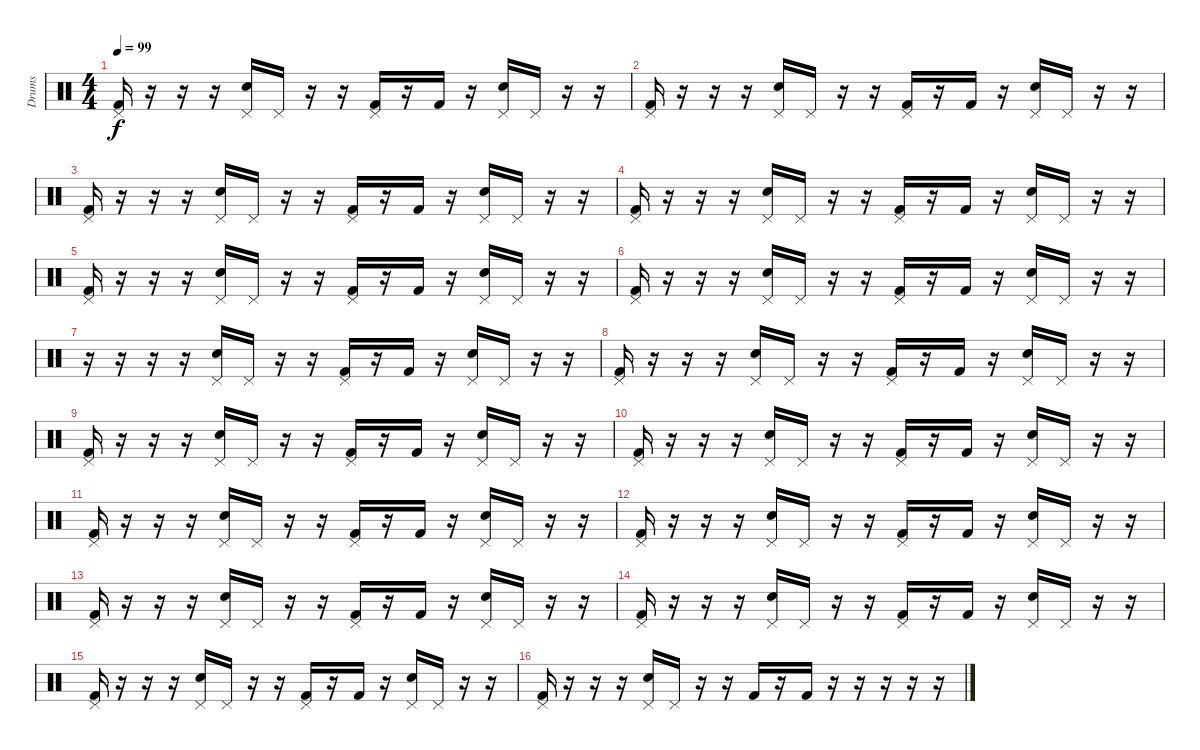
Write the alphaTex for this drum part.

\track ("Drums" "Drums") {instrument percussion}
\staff {score}
\articulation defaults
\ts (4 4)
\tempo 99
\clef neutral
\ks c
("Pedal Hi-Hat (hit)" "Kick (hit) 2").16{dy f} r.16 r.16 r.16 ("Pedal Hi-Hat (hit)" "Electric Snare (hit)").16 "Pedal Hi-Hat (hit)".16 r.16 r.16 ("Pedal Hi-Hat (hit)" "Kick (hit) 2").16 r.16 "Kick (hit) 2".16 r.16 ("Pedal Hi-Hat (hit)" "Electric Snare (hit)").16 "Pedal Hi-Hat (hit)".16 r.16 r.16 |
("Pedal Hi-Hat (hit)" "Kick (hit) 2").16 r.16 r.16 r.16 ("Pedal Hi-Hat (hit)" "Electric Snare (hit)").16 "Pedal Hi-Hat (hit)".16 r.16 r.16 ("Pedal Hi-Hat (hit)" "Kick (hit) 2").16 r.16 "Kick (hit) 2".16 r.16 ("Pedal Hi-Hat (hit)" "Electric Snare (hit)").16 "Pedal Hi-Hat (hit)".16 r.16 r.16 |
("Pedal Hi-Hat (hit)" "Kick (hit) 2").16 r.16 r.16 r.16 ("Pedal Hi-Hat (hit)" "Electric Snare (hit)").16 "Pedal Hi-Hat (hit)".16 r.16 r.16 ("Pedal Hi-Hat (hit)" "Kick (hit) 2").16 r.16 "Kick (hit) 2".16 r.16 ("Pedal Hi-Hat (hit)" "Electric Snare (hit)").16 "Pedal Hi-Hat (hit)".16 r.16 r.16 |
("Pedal Hi-Hat (hit)" "Kick (hit) 2").16 r.16 r.16 r.16 ("Pedal Hi-Hat (hit)" "Electric Snare (hit)").16 "Pedal Hi-Hat (hit)".16 r.16 r.16 ("Pedal Hi-Hat (hit)" "Kick (hit) 2").16 r.16 "Kick (hit) 2".16 r.16 ("Pedal Hi-Hat (hit)" "Electric Snare (hit)").16 "Pedal Hi-Hat (hit)".16 r.16 r.16 |
("Pedal Hi-Hat (hit)" "Kick (hit) 2").16 r.16 r.16 r.16 ("Pedal Hi-Hat (hit)" "Electric Snare (hit)").16 "Pedal Hi-Hat (hit)".16 r.16 r.16 ("Pedal Hi-Hat (hit)" "Kick (hit) 2").16 r.16 "Kick (hit) 2".16 r.16 ("Pedal Hi-Hat (hit)" "Electric Snare (hit)").16 "Pedal Hi-Hat (hit)".16 r.16 r.16 |
("Pedal Hi-Hat (hit)" "Kick (hit) 2").16 r.16 r.16 r.16 ("Pedal Hi-Hat (hit)" "Electric Snare (hit)").16 "Pedal Hi-Hat (hit)".16 r.16 r.16 ("Pedal Hi-Hat (hit)" "Kick (hit) 2").16 r.16 "Kick (hit) 2".16 r.16 ("Pedal Hi-Hat (hit)" "Electric Snare (hit)").16 "Pedal Hi-Hat (hit)".16 r.16 r.16 |
r.16 r.16 r.16 r.16 ("Pedal Hi-Hat (hit)" "Electric Snare (hit)").16 "Pedal Hi-Hat (hit)".16 r.16 r.16 ("Pedal Hi-Hat (hit)" "Kick (hit) 2").16 r.16 "Kick (hit) 2".16 r.16 ("Pedal Hi-Hat (hit)" "Electric Snare (hit)").16 "Pedal Hi-Hat (hit)".16 r.16 r.16 |
("Pedal Hi-Hat (hit)" "Kick (hit) 2").16 r.16 r.16 r.16 ("Pedal Hi-Hat (hit)" "Electric Snare (hit)").16 "Pedal Hi-Hat (hit)".16 r.16 r.16 ("Pedal Hi-Hat (hit)" "Kick (hit) 2").16 r.16 "Kick (hit) 2".16 r.16 ("Pedal Hi-Hat (hit)" "Electric Snare (hit)").16 "Pedal Hi-Hat (hit)".16 r.16 r.16 |
("Pedal Hi-Hat (hit)" "Kick (hit) 2").16 r.16 r.16 r.16 ("Pedal Hi-Hat (hit)" "Electric Snare (hit)").16 "Pedal Hi-Hat (hit)".16 r.16 r.16 ("Pedal Hi-Hat (hit)" "Kick (hit) 2").16 r.16 "Kick (hit) 2".16 r.16 ("Pedal Hi-Hat (hit)" "Electric Snare (hit)").16 "Pedal Hi-Hat (hit)".16 r.16 r.16 |
("Pedal Hi-Hat (hit)" "Kick (hit) 2").16 r.16 r.16 r.16 ("Pedal Hi-Hat (hit)" "Electric Snare (hit)").16 "Pedal Hi-Hat (hit)".16 r.16 r.16 ("Pedal Hi-Hat (hit)" "Kick (hit) 2").16 r.16 "Kick (hit) 2".16 r.16 ("Pedal Hi-Hat (hit)" "Electric Snare (hit)").16 "Pedal Hi-Hat (hit)".16 r.16 r.16 |
("Pedal Hi-Hat (hit)" "Kick (hit) 2").16 r.16 r.16 r.16 ("Pedal Hi-Hat (hit)" "Electric Snare (hit)").16 "Pedal Hi-Hat (hit)".16 r.16 r.16 ("Pedal Hi-Hat (hit)" "Kick (hit) 2").16 r.16 "Kick (hit) 2".16 r.16 ("Pedal Hi-Hat (hit)" "Electric Snare (hit)").16 "Pedal Hi-Hat (hit)".16 r.16 r.16 |
("Pedal Hi-Hat (hit)" "Kick (hit) 2").16 r.16 r.16 r.16 ("Pedal Hi-Hat (hit)" "Electric Snare (hit)").16 "Pedal Hi-Hat (hit)".16 r.16 r.16 ("Pedal Hi-Hat (hit)" "Kick (hit) 2").16 r.16 "Kick (hit) 2".16 r.16 ("Pedal Hi-Hat (hit)" "Electric Snare (hit)").16 "Pedal Hi-Hat (hit)".16 r.16 r.16 |
("Pedal Hi-Hat (hit)" "Kick (hit) 2").16 r.16 r.16 r.16 ("Pedal Hi-Hat (hit)" "Electric Snare (hit)").16 "Pedal Hi-Hat (hit)".16 r.16 r.16 ("Pedal Hi-Hat (hit)" "Kick (hit) 2").16 r.16 "Kick (hit) 2".16 r.16 ("Pedal Hi-Hat (hit)" "Electric Snare (hit)").16 "Pedal Hi-Hat (hit)".16 r.16 r.16 |
("Pedal Hi-Hat (hit)" "Kick (hit) 2").16 r.16 r.16 r.16 ("Pedal Hi-Hat (hit)" "Electric Snare (hit)").16 "Pedal Hi-Hat (hit)".16 r.16 r.16 ("Pedal Hi-Hat (hit)" "Kick (hit) 2").16 r.16 "Kick (hit) 2".16 r.16 ("Pedal Hi-Hat (hit)" "Electric Snare (hit)").16 "Pedal Hi-Hat (hit)".16 r.16 r.16 |
("Pedal Hi-Hat (hit)" "Kick (hit) 2").16 r.16 r.16 r.16 ("Pedal Hi-Hat (hit)" "Electric Snare (hit)").16 "Pedal Hi-Hat (hit)".16 r.16 r.16 ("Pedal Hi-Hat (hit)" "Kick (hit) 2").16 r.16 "Kick (hit) 2".16 r.16 ("Pedal Hi-Hat (hit)" "Electric Snare (hit)").16 "Pedal Hi-Hat (hit)".16 r.16 r.16 |
("Pedal Hi-Hat (hit)" "Kick (hit) 2").16 r.16 r.16 r.16 ("Pedal Hi-Hat (hit)" "Electric Snare (hit)").16 "Pedal Hi-Hat (hit)".16 r.16 r.16 "Kick (hit) 2".16 r.16 "Kick (hit) 2".16 r.16 r.16 r.16 r.16 r.16
